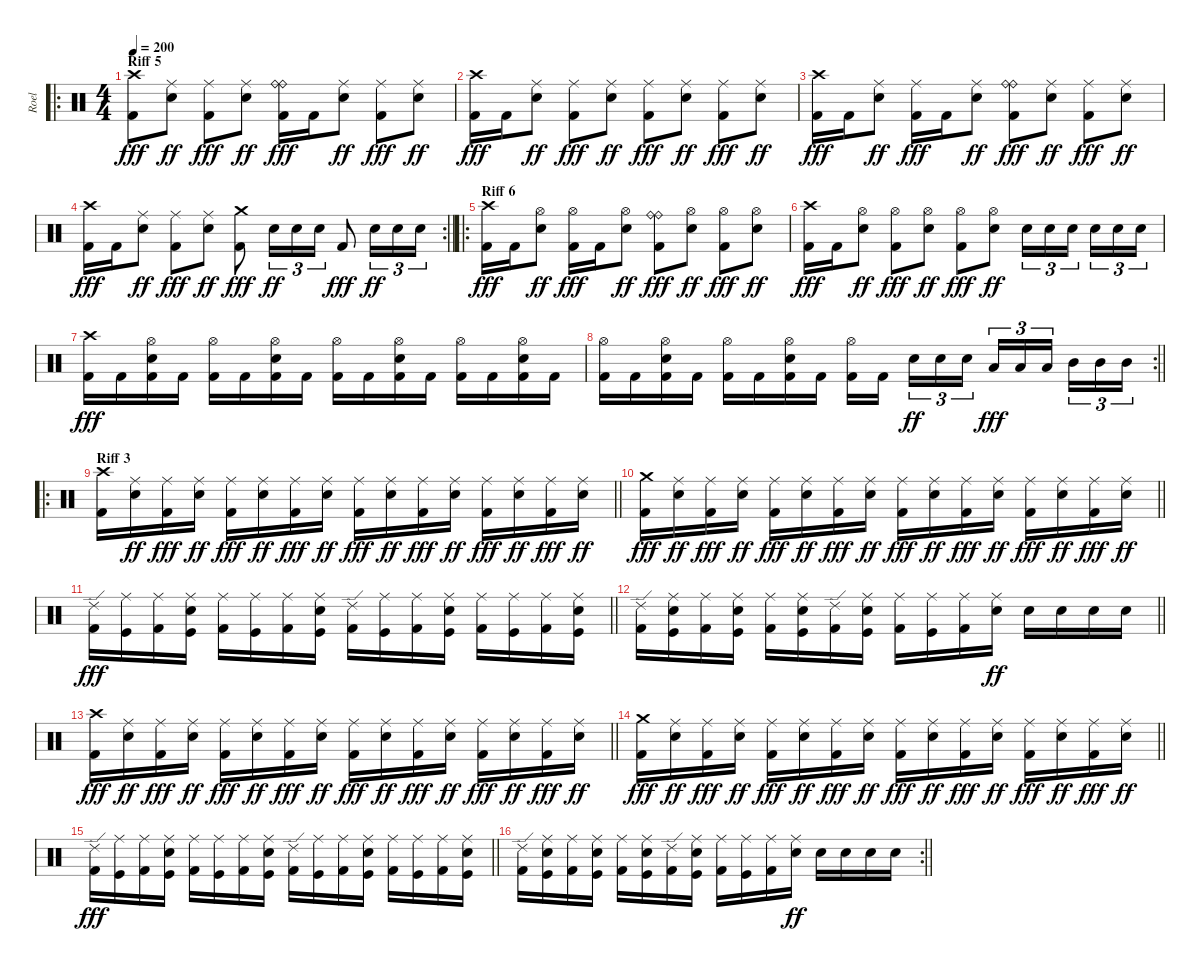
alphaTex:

\track ("Roel" "Roel") {instrument percussion}
\staff {score}
\articulation defaults
\ro
\ts (4 4)
\section ("" "Riff 5")
\tempo 200
\clef neutral
\ks c
("Crash high (hit)" "Kick (hit) 2").8{dy fff} ("Ride (middle)" "Snare (hit) 2").8{dy ff} ("Ride (middle)" "Kick (hit) 2").8{dy fff} ("Ride (middle)" "Snare (hit) 2").8{dy ff} ("Ride (bell)" "Ride (bell)" "Kick (hit) 2").16{dy fff} "Kick (hit) 2".16 ("Ride (middle)" "Snare (hit) 2").8{dy ff} ("Ride (middle)" "Kick (hit) 2").8{dy fff} ("Ride (middle)" "Snare (hit) 2").8{dy ff} |
("Crash high (hit)" "Kick (hit) 2").16{dy fff} "Kick (hit) 2".16 ("Ride (middle)" "Snare (hit) 2").8{dy ff} ("Ride (middle)" "Kick (hit) 2").8{dy fff} ("Ride (middle)" "Snare (hit) 2").8{dy ff} ("Ride (middle)" "Kick (hit) 2").8{dy fff} ("Ride (middle)" "Snare (hit) 2").8{dy ff} ("Ride (middle)" "Kick (hit) 2").8{dy fff} ("Ride (middle)" "Snare (hit) 2").8{dy ff} |
("Crash high (hit)" "Kick (hit) 2").16{dy fff} "Kick (hit) 2".16 ("Ride (middle)" "Snare (hit) 2").8{dy ff} ("Ride (middle)" "Kick (hit) 2").16{dy fff} "Kick (hit) 2".16 ("Ride (middle)" "Snare (hit) 2").8{dy ff} ("Ride (bell)" "Ride (bell)" "Kick (hit) 2").8{dy fff} ("Ride (middle)" "Snare (hit) 2").8{dy ff} ("Ride (middle)" "Kick (hit) 2").8{dy fff} ("Ride (middle)" "Snare (hit) 2").8{dy ff} |
\rc 2
\barLineRight lightlight
("Crash high (hit)" "Kick (hit) 2").16{dy fff} "Kick (hit) 2".16 ("Ride (middle)" "Snare (hit) 2").8{dy ff} ("Ride (middle)" "Kick (hit) 2").8{dy fff} ("Ride (middle)" "Snare (hit) 2").8{dy ff} ("Crash medium (hit)" "Kick (hit) 2").8{dy fff} "Snare (hit) 2".16{tu (3 2) dy ff} "Snare (hit) 2".16{tu (3 2)} "Snare (hit) 2".16{tu (3 2)} "Kick (hit) 2".8{dy fff} "Snare (hit) 2".16{tu (3 2) dy ff} "Snare (hit) 2".16{tu (3 2)} "Snare (hit) 2".16{tu (3 2)} |
\ro
\section ("" "Riff 6")
("Crash high (hit)" "Kick (hit) 2").16{dy fff} "Kick (hit) 2".16 ("Hi-Hat (open)" "Snare (hit) 2").8{dy ff} ("Hi-Hat (open)" "Kick (hit) 2").16{dy fff} "Kick (hit) 2".16 ("Hi-Hat (open)" "Snare (hit) 2").8{dy ff} ("Ride (bell)" "Ride (bell)" "Kick (hit) 2").8{dy fff} ("Hi-Hat (open)" "Snare (hit) 2").8{dy ff} ("Hi-Hat (open)" "Kick (hit) 2").8{dy fff} ("Hi-Hat (open)" "Snare (hit) 2").8{dy ff} |
("Crash high (hit)" "Kick (hit) 2").16{dy fff} "Kick (hit) 2".16 ("Hi-Hat (open)" "Snare (hit) 2").8{dy ff} ("Hi-Hat (open)" "Kick (hit) 2").8{dy fff} ("Hi-Hat (open)" "Snare (hit) 2").8{dy ff} ("Hi-Hat (open)" "Kick (hit) 2").8{dy fff} ("Hi-Hat (open)" "Snare (hit) 2").8{dy ff} "Snare (hit) 2".16{tu (3 2)} "Snare (hit) 2".16{tu (3 2)} "Snare (hit) 2".16{tu (3 2) beam splitsecondary} "Snare (hit) 2".16{tu (3 2)} "Snare (hit) 2".16{tu (3 2)} "Snare (hit) 2".16{tu (3 2)} |
("Crash high (hit)" "Kick (hit) 2").16{dy fff} "Kick (hit) 2".16 ("Hi-Hat (open)" "Snare (hit) 2" "Kick (hit) 2").16 "Kick (hit) 2".16 ("Hi-Hat (open)" "Kick (hit) 2").16 "Kick (hit) 2".16 ("Hi-Hat (open)" "Snare (hit) 2" "Kick (hit) 2").16 "Kick (hit) 2".16 ("Hi-Hat (open)" "Kick (hit) 2").16 "Kick (hit) 2".16 ("Hi-Hat (open)" "Snare (hit) 2" "Kick (hit) 2").16 "Kick (hit) 2".16 ("Hi-Hat (open)" "Kick (hit) 2").16 "Kick (hit) 2".16 ("Hi-Hat (open)" "Snare (hit) 2" "Kick (hit) 2").16 "Kick (hit) 2".16 |
\rc 2
\barLineRight lightlight
("Hi-Hat (open)" "Kick (hit) 2").16 "Kick (hit) 2".16 ("Hi-Hat (open)" "Snare (hit) 2" "Kick (hit) 2").16 "Kick (hit) 2".16 ("Hi-Hat (open)" "Kick (hit) 2").16 "Kick (hit) 2".16 ("Hi-Hat (open)" "Snare (hit) 2" "Kick (hit) 2").16 "Kick (hit) 2".16 ("Hi-Hat (open)" "Kick (hit) 2").16 "Kick (hit) 2".16{beam splitsecondary} "Snare (hit) 2".16{tu (3 2) dy ff} "Snare (hit) 2".16{tu (3 2)} "Snare (hit) 2".16{tu (3 2)} "Low Tom (hit)".16{tu (3 2) dy fff} "Low Tom (hit)".16{tu (3 2)} "Low Tom (hit)".16{tu (3 2) beam splitsecondary} "Mid Tom (hit)".16{tu (3 2)} "Mid Tom (hit)".16{tu (3 2)} "Mid Tom (hit)".16{tu (3 2)} |
\ro
\section ("" "Riff 3")
\barLineRight lightlight
("Crash high (hit)" "Kick (hit) 2").16 ("Ride (middle)" "Snare (hit) 2").16{dy ff} ("Ride (middle)" "Kick (hit) 2").16{dy fff} ("Ride (middle)" "Snare (hit) 2").16{dy ff} ("Ride (middle)" "Kick (hit) 2").16{dy fff} ("Ride (middle)" "Snare (hit) 2").16{dy ff} ("Ride (middle)" "Kick (hit) 2").16{dy fff} ("Ride (middle)" "Snare (hit) 2").16{dy ff} ("Ride (middle)" "Kick (hit) 2").16{dy fff} ("Ride (middle)" "Snare (hit) 2").16{dy ff} ("Ride (middle)" "Kick (hit) 2").16{dy fff} ("Ride (middle)" "Snare (hit) 2").16{dy ff} ("Ride (middle)" "Kick (hit) 2").16{dy fff} ("Ride (middle)" "Snare (hit) 2").16{dy ff} ("Ride (middle)" "Kick (hit) 2").16{dy fff} ("Ride (middle)" "Snare (hit) 2").16{dy ff} |
\barLineRight lightlight
("Crash medium (hit)" "Kick (hit) 2").16{dy fff} ("Ride (middle)" "Snare (hit) 2").16{dy ff} ("Ride (middle)" "Kick (hit) 2").16{dy fff} ("Ride (middle)" "Snare (hit) 2").16{dy ff} ("Ride (middle)" "Kick (hit) 2").16{dy fff} ("Ride (middle)" "Snare (hit) 2").16{dy ff} ("Ride (middle)" "Kick (hit) 2").16{dy fff} ("Ride (middle)" "Snare (hit) 2").16{dy ff} ("Ride (middle)" "Kick (hit) 2").16{dy fff} ("Ride (middle)" "Snare (hit) 2").16{dy ff} ("Ride (middle)" "Kick (hit) 2").16{dy fff} ("Ride (middle)" "Snare (hit) 2").16{dy ff} ("Ride (middle)" "Kick (hit) 2").16{dy fff} ("Ride (middle)" "Snare (hit) 2").16{dy ff} ("Ride (middle)" "Kick (hit) 2").16{dy fff} ("Ride (middle)" "Snare (hit) 2").16{dy ff} |
\barLineRight lightlight
("Ride (edge) 2" "Kick (hit) 2").16{dy fff} ("Ride (middle)" "Kick (hit)").16 ("Ride (middle)" "Kick (hit) 2").16 ("Ride (middle)" "Snare (hit) 2" "Kick (hit)").16 ("Ride (middle)" "Kick (hit) 2").16 ("Ride (middle)" "Kick (hit)").16 ("Ride (middle)" "Kick (hit) 2").16 ("Ride (middle)" "Snare (hit) 2" "Kick (hit)").16 ("Ride (edge) 2" "Kick (hit) 2").16 ("Ride (middle)" "Kick (hit)").16 ("Ride (middle)" "Kick (hit) 2").16 ("Ride (middle)" "Snare (hit) 2" "Kick (hit)").16 ("Ride (middle)" "Kick (hit) 2").16 ("Ride (middle)" "Kick (hit)").16 ("Ride (middle)" "Kick (hit) 2").16 ("Ride (middle)" "Snare (hit) 2" "Kick (hit)").16 |
\barLineRight lightlight
("Ride (edge) 2" "Kick (hit) 2").16 ("Ride (middle)" "Snare (hit) 2" "Kick (hit)").16 ("Ride (middle)" "Kick (hit) 2").16 ("Ride (middle)" "Snare (hit) 2" "Kick (hit)").16 ("Ride (middle)" "Kick (hit) 2").16 ("Ride (middle)" "Snare (hit) 2" "Kick (hit)").16 ("Ride (edge) 2" "Kick (hit) 2").16 ("Ride (middle)" "Snare (hit) 2" "Kick (hit)").16 ("Ride (middle)" "Kick (hit) 2").16 ("Ride (middle)" "Kick (hit)").16 ("Ride (middle)" "Kick (hit) 2").16 ("Ride (middle)" "Snare (hit) 2").16{dy ff} "Snare (hit) 2".16 "Snare (hit) 2".16 "Snare (hit) 2".16 "Snare (hit) 2".16 |
\barLineRight lightlight
("Crash high (hit)" "Kick (hit) 2").16{dy fff} ("Ride (middle)" "Snare (hit) 2").16{dy ff} ("Ride (middle)" "Kick (hit) 2").16{dy fff} ("Ride (middle)" "Snare (hit) 2").16{dy ff} ("Ride (middle)" "Kick (hit) 2").16{dy fff} ("Ride (middle)" "Snare (hit) 2").16{dy ff} ("Ride (middle)" "Kick (hit) 2").16{dy fff} ("Ride (middle)" "Snare (hit) 2").16{dy ff} ("Ride (middle)" "Kick (hit) 2").16{dy fff} ("Ride (middle)" "Snare (hit) 2").16{dy ff} ("Ride (middle)" "Kick (hit) 2").16{dy fff} ("Ride (middle)" "Snare (hit) 2").16{dy ff} ("Ride (middle)" "Kick (hit) 2").16{dy fff} ("Ride (middle)" "Snare (hit) 2").16{dy ff} ("Ride (middle)" "Kick (hit) 2").16{dy fff} ("Ride (middle)" "Snare (hit) 2").16{dy ff} |
\barLineRight lightlight
("Crash medium (hit)" "Kick (hit) 2").16{dy fff} ("Ride (middle)" "Snare (hit) 2").16{dy ff} ("Ride (middle)" "Kick (hit) 2").16{dy fff} ("Ride (middle)" "Snare (hit) 2").16{dy ff} ("Ride (middle)" "Kick (hit) 2").16{dy fff} ("Ride (middle)" "Snare (hit) 2").16{dy ff} ("Ride (middle)" "Kick (hit) 2").16{dy fff} ("Ride (middle)" "Snare (hit) 2").16{dy ff} ("Ride (middle)" "Kick (hit) 2").16{dy fff} ("Ride (middle)" "Snare (hit) 2").16{dy ff} ("Ride (middle)" "Kick (hit) 2").16{dy fff} ("Ride (middle)" "Snare (hit) 2").16{dy ff} ("Ride (middle)" "Kick (hit) 2").16{dy fff} ("Ride (middle)" "Snare (hit) 2").16{dy ff} ("Ride (middle)" "Kick (hit) 2").16{dy fff} ("Ride (middle)" "Snare (hit) 2").16{dy ff} |
\barLineRight lightlight
("Ride (edge) 2" "Kick (hit) 2").16{dy fff} ("Ride (middle)" "Kick (hit)").16 ("Ride (middle)" "Kick (hit) 2").16 ("Ride (middle)" "Snare (hit) 2" "Kick (hit)").16 ("Ride (middle)" "Kick (hit) 2").16 ("Ride (middle)" "Kick (hit)").16 ("Ride (middle)" "Kick (hit) 2").16 ("Ride (middle)" "Snare (hit) 2" "Kick (hit)").16 ("Ride (edge) 2" "Kick (hit) 2").16 ("Ride (middle)" "Kick (hit)").16 ("Ride (middle)" "Kick (hit) 2").16 ("Ride (middle)" "Snare (hit) 2" "Kick (hit)").16 ("Ride (middle)" "Kick (hit) 2").16 ("Ride (middle)" "Kick (hit)").16 ("Ride (middle)" "Kick (hit) 2").16 ("Ride (middle)" "Snare (hit) 2" "Kick (hit)").16 |
\rc 2
\barLineRight lightlight
("Ride (edge) 2" "Kick (hit) 2").16 ("Ride (middle)" "Snare (hit) 2" "Kick (hit)").16 ("Ride (middle)" "Kick (hit) 2").16 ("Ride (middle)" "Snare (hit) 2" "Kick (hit)").16 ("Ride (middle)" "Kick (hit) 2").16 ("Ride (middle)" "Snare (hit) 2" "Kick (hit)").16 ("Ride (edge) 2" "Kick (hit) 2").16 ("Ride (middle)" "Snare (hit) 2" "Kick (hit)").16 ("Ride (middle)" "Kick (hit) 2").16 ("Ride (middle)" "Kick (hit)").16 ("Ride (middle)" "Kick (hit) 2").16 ("Ride (middle)" "Snare (hit) 2").16{dy ff} "Snare (hit) 2".16 "Snare (hit) 2".16 "Snare (hit) 2".16 "Snare (hit) 2".16
